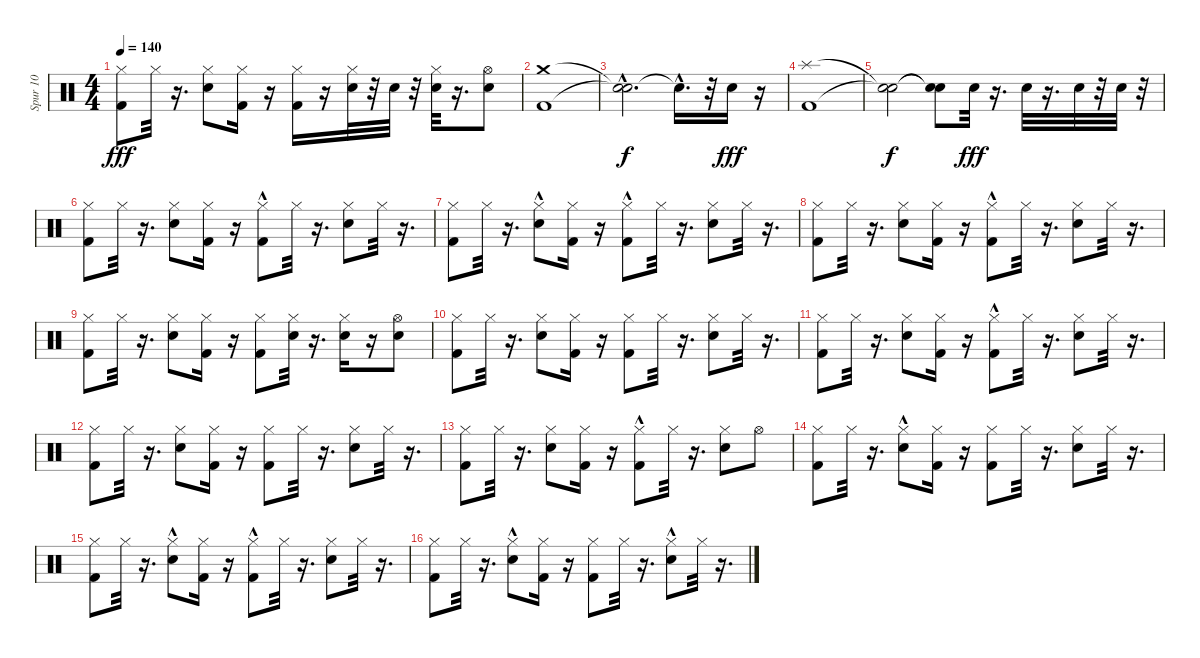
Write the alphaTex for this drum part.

\track ("Spur 10" "Spur 10") {instrument percussion}
\staff {score}
\articulation defaults
\ts (4 4)
\tempo 140
\clef neutral
\ks c
("Kick (hit) 2" "Hi-Hat (closed)").8{dy fff} "Hi-Hat (closed)".32 r.16{d} ("Snare (hit) 2" "Hi-Hat (closed)").8 ("Kick (hit) 2" "Hi-Hat (closed)").16 r.16 ("Kick (hit) 2" "Hi-Hat (closed)").16 r.16 ("Snare (hit) 2" "Hi-Hat (closed)").32 r.32 "Snare (hit) 2".32 r.32 ("Snare (hit) 2" "Hi-Hat (closed)").32 r.16{d} ("Snare (hit) 2" "Hi-Hat (open)").8 |
("Kick (hit) 2" "Crash medium (hit)").1 |
("Snare (hit)"{hac t} "Snare (hit)"{t}).2{d dy f} "Snare (hit)"{hac t}.16{d} r.32 "Snare (hit) 2".16{dy fff} r.16 |
("Kick (hit) 2" "Splash (hit)").1 |
("Snare (hit)"{t} "Snare (hit)"{t}).2{dy f} ("Snare (hit)"{t} "Snare (hit)"{t}).8 "Snare (hit) 2".32{dy fff} r.16{d} "Snare (hit) 2".32 r.16{d} "Snare (hit) 2".32 r.32 "Snare (hit) 2".32 r.32 |
("Kick (hit) 2" "Hi-Hat (closed)").8 "Hi-Hat (closed)".32 r.16{d} ("Snare (hit) 2" "Hi-Hat (closed)").8 ("Kick (hit) 2" "Hi-Hat (closed)").16 r.16 ("Kick (hit) 2"{hac} "Hi-Hat (closed)").8 "Hi-Hat (closed)".32 r.16{d} ("Snare (hit) 2" "Hi-Hat (closed)").8 "Hi-Hat (closed)".32 r.16{d} |
("Kick (hit) 2" "Hi-Hat (closed)").8 "Hi-Hat (closed)".32 r.16{d} ("Snare (hit) 2"{hac} "Hi-Hat (closed)").8 ("Kick (hit) 2" "Hi-Hat (closed)").16 r.16 ("Kick (hit) 2"{hac} "Hi-Hat (closed)").8 "Hi-Hat (closed)".32 r.16{d} ("Snare (hit) 2" "Hi-Hat (closed)").8 "Hi-Hat (closed)".32 r.16{d} |
("Kick (hit) 2" "Hi-Hat (closed)").8 "Hi-Hat (closed)".32 r.16{d} ("Snare (hit) 2" "Hi-Hat (closed)").8 ("Kick (hit) 2" "Hi-Hat (closed)").16 r.16 ("Kick (hit) 2"{hac} "Hi-Hat (closed)").8 "Hi-Hat (closed)".32 r.16{d} ("Snare (hit) 2" "Hi-Hat (closed)").8 "Hi-Hat (closed)".32 r.16{d} |
("Kick (hit) 2" "Hi-Hat (closed)").8 "Hi-Hat (closed)".32 r.16{d} ("Snare (hit) 2" "Hi-Hat (closed)").8 ("Kick (hit) 2" "Hi-Hat (closed)").16 r.16 ("Kick (hit) 2" "Hi-Hat (closed)").8 ("Snare (hit) 2" "Hi-Hat (closed)").32 r.16{d} ("Snare (hit) 2" "Hi-Hat (closed)").16 r.16 ("Snare (hit) 2" "Hi-Hat (open)").8 |
("Kick (hit) 2" "Hi-Hat (closed)").8 "Hi-Hat (closed)".32 r.16{d} ("Snare (hit) 2" "Hi-Hat (closed)").8 ("Kick (hit) 2" "Hi-Hat (closed)").16 r.16 ("Kick (hit) 2" "Hi-Hat (closed)").8 "Hi-Hat (closed)".32 r.16{d} ("Snare (hit) 2" "Hi-Hat (closed)").8 "Hi-Hat (closed)".32 r.16{d} |
("Kick (hit) 2" "Hi-Hat (closed)").8 "Hi-Hat (closed)".32 r.16{d} ("Snare (hit) 2" "Hi-Hat (closed)").8 ("Kick (hit) 2" "Hi-Hat (closed)").16 r.16 ("Kick (hit) 2"{hac} "Hi-Hat (closed)").8 "Hi-Hat (closed)".32 r.16{d} ("Snare (hit) 2" "Hi-Hat (closed)").8 "Hi-Hat (closed)".32 r.16{d} |
("Kick (hit) 2" "Hi-Hat (closed)").8 "Hi-Hat (closed)".32 r.16{d} ("Snare (hit) 2" "Hi-Hat (closed)").8 ("Kick (hit) 2" "Hi-Hat (closed)").16 r.16 ("Kick (hit) 2" "Hi-Hat (closed)").8 "Hi-Hat (closed)".32 r.16{d} ("Snare (hit) 2" "Hi-Hat (closed)").8 "Hi-Hat (closed)".32 r.16{d} |
("Kick (hit) 2" "Hi-Hat (closed)").8 "Hi-Hat (closed)".32 r.16{d} ("Snare (hit) 2" "Hi-Hat (closed)").8 ("Kick (hit) 2" "Hi-Hat (closed)").16 r.16 ("Kick (hit) 2"{hac} "Hi-Hat (closed)").8 "Hi-Hat (closed)".32 r.16{d} ("Snare (hit) 2" "Hi-Hat (closed)").8 "Hi-Hat (open)".8 |
("Kick (hit) 2" "Hi-Hat (closed)").8 "Hi-Hat (closed)".32 r.16{d} ("Snare (hit) 2"{hac} "Hi-Hat (closed)").8 ("Kick (hit) 2" "Hi-Hat (closed)").16 r.16 ("Kick (hit) 2" "Hi-Hat (closed)").8 "Hi-Hat (closed)".32 r.16{d} ("Snare (hit) 2" "Hi-Hat (closed)").8 "Hi-Hat (closed)".32 r.16{d} |
("Kick (hit) 2" "Hi-Hat (closed)").8 "Hi-Hat (closed)".32 r.16{d} ("Snare (hit) 2"{hac} "Hi-Hat (closed)").8 ("Kick (hit) 2" "Hi-Hat (closed)").16 r.16 ("Kick (hit) 2"{hac} "Hi-Hat (closed)").8 "Hi-Hat (closed)".32 r.16{d} ("Snare (hit) 2" "Hi-Hat (closed)").8 "Hi-Hat (closed)".32 r.16{d} |
("Kick (hit) 2" "Hi-Hat (closed)").8 "Hi-Hat (closed)".32 r.16{d} ("Snare (hit) 2"{hac} "Hi-Hat (closed)").8 ("Kick (hit) 2" "Hi-Hat (closed)").16 r.16 ("Kick (hit) 2" "Hi-Hat (closed)").8 "Hi-Hat (closed)".32 r.16{d} ("Snare (hit) 2"{hac} "Hi-Hat (closed)").8 "Hi-Hat (closed)".32 r.16{d}
